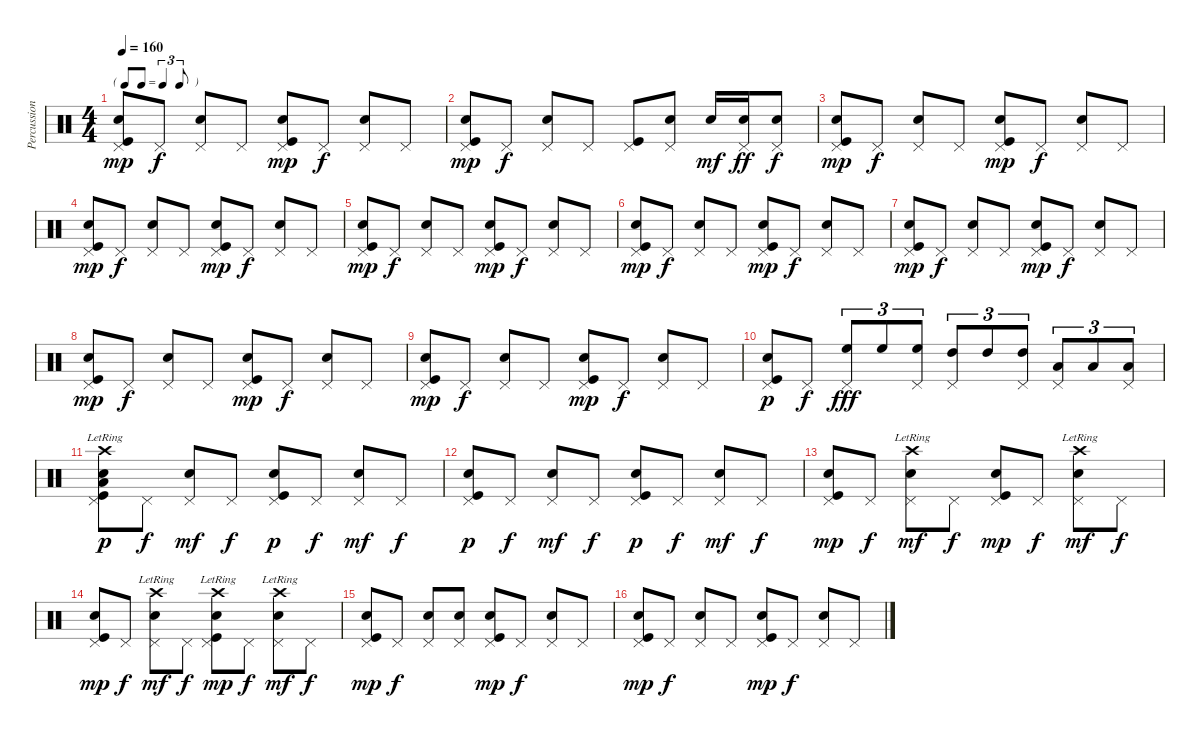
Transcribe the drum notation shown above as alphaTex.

\track ("Percussions" "Percussion") {instrument percussion}
\staff {score}
\articulation defaults
\ts (4 4)
\tf triplet8th
\tempo 160
\clef neutral
\ks c
("Pedal Hi-Hat (hit)" "Snare (hit) 2" "Kick (hit)").8{dy mp} "Pedal Hi-Hat (hit)".8{dy f} ("Pedal Hi-Hat (hit)" "Snare (hit) 2").8 "Pedal Hi-Hat (hit)".8 ("Pedal Hi-Hat (hit)" "Snare (hit) 2" "Kick (hit)").8{dy mp} "Pedal Hi-Hat (hit)".8{dy f} ("Pedal Hi-Hat (hit)" "Snare (hit) 2").8 "Pedal Hi-Hat (hit)".8 |
("Pedal Hi-Hat (hit)" "Snare (hit) 2" "Kick (hit)").8{dy mp} "Pedal Hi-Hat (hit)".8{dy f} ("Pedal Hi-Hat (hit)" "Snare (hit) 2").8 "Pedal Hi-Hat (hit)".8 ("Pedal Hi-Hat (hit)" "Kick (hit)").8 ("Pedal Hi-Hat (hit)" "Snare (hit) 2").8 "Snare (hit) 2".16{dy mf} ("Pedal Hi-Hat (hit)" "Snare (hit) 2").16{dy ff} ("Pedal Hi-Hat (hit)" "Snare (hit) 2").8{dy f} |
("Pedal Hi-Hat (hit)" "Snare (hit) 2" "Kick (hit)").8{dy mp} "Pedal Hi-Hat (hit)".8{dy f} ("Pedal Hi-Hat (hit)" "Snare (hit) 2").8 "Pedal Hi-Hat (hit)".8 ("Pedal Hi-Hat (hit)" "Snare (hit) 2" "Kick (hit)").8{dy mp} "Pedal Hi-Hat (hit)".8{dy f} ("Pedal Hi-Hat (hit)" "Snare (hit) 2").8 "Pedal Hi-Hat (hit)".8 |
("Pedal Hi-Hat (hit)" "Snare (hit) 2" "Kick (hit)").8{dy mp} "Pedal Hi-Hat (hit)".8{dy f} ("Pedal Hi-Hat (hit)" "Snare (hit) 2").8 "Pedal Hi-Hat (hit)".8 ("Pedal Hi-Hat (hit)" "Snare (hit) 2" "Kick (hit)").8{dy mp} "Pedal Hi-Hat (hit)".8{dy f} ("Pedal Hi-Hat (hit)" "Snare (hit) 2").8 "Pedal Hi-Hat (hit)".8 |
("Pedal Hi-Hat (hit)" "Snare (hit) 2" "Kick (hit)").8{dy mp} "Pedal Hi-Hat (hit)".8{dy f} ("Pedal Hi-Hat (hit)" "Snare (hit) 2").8 "Pedal Hi-Hat (hit)".8 ("Pedal Hi-Hat (hit)" "Snare (hit) 2" "Kick (hit)").8{dy mp} "Pedal Hi-Hat (hit)".8{dy f} ("Pedal Hi-Hat (hit)" "Snare (hit) 2").8 "Pedal Hi-Hat (hit)".8 |
("Pedal Hi-Hat (hit)" "Snare (hit) 2" "Kick (hit)").8{dy mp} "Pedal Hi-Hat (hit)".8{dy f} ("Pedal Hi-Hat (hit)" "Snare (hit) 2").8 "Pedal Hi-Hat (hit)".8 ("Pedal Hi-Hat (hit)" "Snare (hit) 2" "Kick (hit)").8{dy mp} "Pedal Hi-Hat (hit)".8{dy f} ("Pedal Hi-Hat (hit)" "Snare (hit) 2").8 "Pedal Hi-Hat (hit)".8 |
("Pedal Hi-Hat (hit)" "Snare (hit) 2" "Kick (hit)").8{dy mp} "Pedal Hi-Hat (hit)".8{dy f} ("Pedal Hi-Hat (hit)" "Snare (hit) 2").8 "Pedal Hi-Hat (hit)".8 ("Pedal Hi-Hat (hit)" "Snare (hit) 2" "Kick (hit)").8{dy mp} "Pedal Hi-Hat (hit)".8{dy f} ("Pedal Hi-Hat (hit)" "Snare (hit) 2").8 "Pedal Hi-Hat (hit)".8 |
("Pedal Hi-Hat (hit)" "Snare (hit) 2" "Kick (hit)").8{dy mp} "Pedal Hi-Hat (hit)".8{dy f} ("Pedal Hi-Hat (hit)" "Snare (hit) 2").8 "Pedal Hi-Hat (hit)".8 ("Pedal Hi-Hat (hit)" "Snare (hit) 2" "Kick (hit)").8{dy mp} "Pedal Hi-Hat (hit)".8{dy f} ("Pedal Hi-Hat (hit)" "Snare (hit) 2").8 "Pedal Hi-Hat (hit)".8 |
("Pedal Hi-Hat (hit)" "Snare (hit) 2" "Kick (hit)").8{dy mp} "Pedal Hi-Hat (hit)".8{dy f} ("Pedal Hi-Hat (hit)" "Snare (hit) 2").8 "Pedal Hi-Hat (hit)".8 ("Pedal Hi-Hat (hit)" "Snare (hit) 2" "Kick (hit)").8{dy mp} "Pedal Hi-Hat (hit)".8{dy f} ("Pedal Hi-Hat (hit)" "Snare (hit) 2").8 "Pedal Hi-Hat (hit)".8 |
("Pedal Hi-Hat (hit)" "Snare (hit) 2" "Kick (hit)").8{dy p} "Pedal Hi-Hat (hit)".8{dy f} ("Pedal Hi-Hat (hit)" "High Floor Tom (hit)").8{tu (3 2) dy fff} "High Floor Tom (hit)".8{tu (3 2)} ("Pedal Hi-Hat (hit)" "High Floor Tom (hit)").8{tu (3 2)} ("Pedal Hi-Hat (hit)" "High Tom (hit)").8{tu (3 2)} "High Tom (hit)".8{tu (3 2)} ("Pedal Hi-Hat (hit)" "High Tom (hit)").8{tu (3 2)} ("Pedal Hi-Hat (hit)" "Low Tom (hit)").8{tu (3 2)} "Low Tom (hit)".8{tu (3 2)} ("Pedal Hi-Hat (hit)" "Low Tom (hit)").8{tu (3 2)} |
("Pedal Hi-Hat (hit)" "Crash high (hit)"{lr} "Snare (hit) 2" "Low Tom (hit)"{lr} "Kick (hit)").8{dy p} "Pedal Hi-Hat (hit)".8{dy f} ("Pedal Hi-Hat (hit)" "Snare (hit) 2").8{dy mf} "Pedal Hi-Hat (hit)".8{dy f} ("Pedal Hi-Hat (hit)" "Snare (hit) 2" "Kick (hit)").8{dy p} "Pedal Hi-Hat (hit)".8{dy f} ("Pedal Hi-Hat (hit)" "Snare (hit) 2").8{dy mf} "Pedal Hi-Hat (hit)".8{dy f} |
("Pedal Hi-Hat (hit)" "Snare (hit) 2" "Kick (hit)").8{dy p} "Pedal Hi-Hat (hit)".8{dy f} ("Pedal Hi-Hat (hit)" "Snare (hit) 2").8{dy mf} "Pedal Hi-Hat (hit)".8{dy f} ("Pedal Hi-Hat (hit)" "Snare (hit) 2" "Kick (hit)").8{dy p} "Pedal Hi-Hat (hit)".8{dy f} ("Pedal Hi-Hat (hit)" "Snare (hit) 2").8{dy mf} "Pedal Hi-Hat (hit)".8{dy f} |
("Pedal Hi-Hat (hit)" "Snare (hit) 2" "Kick (hit)").8{dy mp} "Pedal Hi-Hat (hit)".8{dy f} ("Pedal Hi-Hat (hit)" "Crash high (hit)"{lr} "Snare (hit) 2").8{dy mf} "Pedal Hi-Hat (hit)".8{dy f} ("Pedal Hi-Hat (hit)" "Snare (hit) 2" "Kick (hit)").8{dy mp} "Pedal Hi-Hat (hit)".8{dy f} ("Pedal Hi-Hat (hit)" "Crash high (hit)"{lr} "Snare (hit) 2").8{dy mf} "Pedal Hi-Hat (hit)".8{dy f} |
("Pedal Hi-Hat (hit)" "Snare (hit) 2" "Kick (hit)").8{dy mp} "Pedal Hi-Hat (hit)".8{dy f} ("Pedal Hi-Hat (hit)" "Crash high (hit)"{lr} "Snare (hit) 2").8{dy mf} "Pedal Hi-Hat (hit)".8{dy f} ("Pedal Hi-Hat (hit)" "Crash high (hit)"{lr} "Snare (hit) 2" "Kick (hit)").8{dy mp} "Pedal Hi-Hat (hit)".8{dy f} ("Pedal Hi-Hat (hit)" "Crash high (hit)"{lr} "Snare (hit) 2").8{dy mf} "Pedal Hi-Hat (hit)".8{dy f} |
("Pedal Hi-Hat (hit)" "Snare (hit) 2" "Kick (hit)").8{dy mp} "Pedal Hi-Hat (hit)".8{dy f} ("Pedal Hi-Hat (hit)" "Snare (hit) 2").8 ("Pedal Hi-Hat (hit)" "Snare (hit) 2").8 ("Pedal Hi-Hat (hit)" "Snare (hit) 2" "Kick (hit)").8{dy mp} "Pedal Hi-Hat (hit)".8{dy f} ("Pedal Hi-Hat (hit)" "Snare (hit) 2").8 "Pedal Hi-Hat (hit)".8 |
("Pedal Hi-Hat (hit)" "Snare (hit) 2" "Kick (hit)").8{dy mp} "Pedal Hi-Hat (hit)".8{dy f} ("Pedal Hi-Hat (hit)" "Snare (hit) 2").8 "Pedal Hi-Hat (hit)".8 ("Pedal Hi-Hat (hit)" "Snare (hit) 2" "Kick (hit)").8{dy mp} "Pedal Hi-Hat (hit)".8{dy f} ("Pedal Hi-Hat (hit)" "Snare (hit) 2").8 "Pedal Hi-Hat (hit)".8
